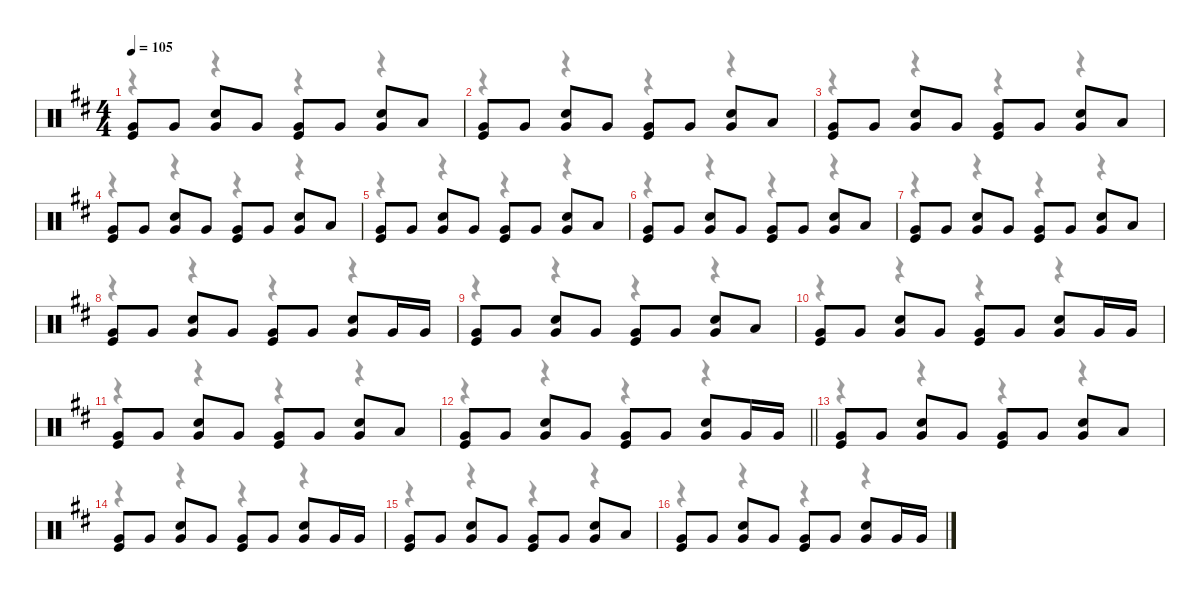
\defaultSystemsLayout 4
\hideDynamics
\bracketExtendMode nobrackets
\singleTrackTrackNamePolicy hidden
\multiTrackTrackNamePolicy hidden
\firstSystemTrackNameMode fullname
\firstSystemTrackNameOrientation horizontal
\otherSystemsTrackNameOrientation horizontal
\track ("Drums" "drm.") {instrument percussion}
\staff {score}
\articulation defaults
\voice
\ts (4 4)
\beaming (8 2 2 2 2)
\tempo 105
\clef neutral
\ks bminor
("Very Low Tom (hit)"{acc forcenatural} "Kick (hit)"{acc forcenatural}).8{dy mp beam Up} "Very Low Tom (hit)"{acc forcenatural}.8{beam Up} ("Very Low Tom (hit)"{acc forcenatural} "Snare (hit) 2"{acc forcenatural}).8{beam Up} "Very Low Tom (hit)"{acc forcenatural}.8{beam Up} ("Very Low Tom (hit)"{acc forcenatural} "Kick (hit)"{acc forcenatural}).8{beam Up} "Very Low Tom (hit)"{acc forcenatural}.8{beam Up} ("Very Low Tom (hit)"{acc forcenatural} "Snare (hit) 2"{acc forcenatural}).8{beam Up} "Low Tom (hit)"{acc forcenatural}.8{beam Up} |
("Very Low Tom (hit)"{acc forcenatural} "Kick (hit)"{acc forcenatural}).8{beam Up} "Very Low Tom (hit)"{acc forcenatural}.8{beam Up} ("Very Low Tom (hit)"{acc forcenatural} "Snare (hit) 2"{acc forcenatural}).8{beam Up} "Very Low Tom (hit)"{acc forcenatural}.8{beam Up} ("Very Low Tom (hit)"{acc forcenatural} "Kick (hit)"{acc forcenatural}).8{beam Up} "Very Low Tom (hit)"{acc forcenatural}.8{beam Up} ("Very Low Tom (hit)"{acc forcenatural} "Snare (hit) 2"{acc forcenatural}).8{beam Up} "Low Tom (hit)"{acc forcenatural}.8{beam Up} |
("Very Low Tom (hit)"{acc forcenatural} "Kick (hit)"{acc forcenatural}).8{beam Up} "Very Low Tom (hit)"{acc forcenatural}.8{beam Up} ("Very Low Tom (hit)"{acc forcenatural} "Snare (hit) 2"{acc forcenatural}).8{beam Up} "Very Low Tom (hit)"{acc forcenatural}.8{beam Up} ("Very Low Tom (hit)"{acc forcenatural} "Kick (hit)"{acc forcenatural}).8{beam Up} "Very Low Tom (hit)"{acc forcenatural}.8{beam Up} ("Very Low Tom (hit)"{acc forcenatural} "Snare (hit) 2"{acc forcenatural}).8{beam Up} "Low Tom (hit)"{acc forcenatural}.8{beam Up} |
("Very Low Tom (hit)"{acc forcenatural} "Kick (hit)"{acc forcenatural}).8{beam Up} "Very Low Tom (hit)"{acc forcenatural}.8{beam Up} ("Very Low Tom (hit)"{acc forcenatural} "Snare (hit) 2"{acc forcenatural}).8{beam Up} "Very Low Tom (hit)"{acc forcenatural}.8{beam Up} ("Very Low Tom (hit)"{acc forcenatural} "Kick (hit)"{acc forcenatural}).8{beam Up} "Very Low Tom (hit)"{acc forcenatural}.8{beam Up} ("Very Low Tom (hit)"{acc forcenatural} "Snare (hit) 2"{acc forcenatural}).8{beam Up} "Low Tom (hit)"{acc forcenatural}.8{beam Up} |
("Very Low Tom (hit)"{acc forcenatural} "Kick (hit)"{acc forcenatural}).8{beam Up} "Very Low Tom (hit)"{acc forcenatural}.8{beam Up} ("Very Low Tom (hit)"{acc forcenatural} "Snare (hit) 2"{acc forcenatural}).8{beam Up} "Very Low Tom (hit)"{acc forcenatural}.8{beam Up} ("Very Low Tom (hit)"{acc forcenatural} "Kick (hit)"{acc forcenatural}).8{beam Up} "Very Low Tom (hit)"{acc forcenatural}.8{beam Up} ("Very Low Tom (hit)"{acc forcenatural} "Snare (hit) 2"{acc forcenatural}).8{beam Up} "Low Tom (hit)"{acc forcenatural}.8{beam Up} |
("Very Low Tom (hit)"{acc forcenatural} "Kick (hit)"{acc forcenatural}).8{beam Up} "Very Low Tom (hit)"{acc forcenatural}.8{beam Up} ("Very Low Tom (hit)"{acc forcenatural} "Snare (hit) 2"{acc forcenatural}).8{beam Up} "Very Low Tom (hit)"{acc forcenatural}.8{beam Up} ("Very Low Tom (hit)"{acc forcenatural} "Kick (hit)"{acc forcenatural}).8{beam Up} "Very Low Tom (hit)"{acc forcenatural}.8{beam Up} ("Very Low Tom (hit)"{acc forcenatural} "Snare (hit) 2"{acc forcenatural}).8{beam Up} "Low Tom (hit)"{acc forcenatural}.8{beam Up} |
("Very Low Tom (hit)"{acc forcenatural} "Kick (hit)"{acc forcenatural}).8{beam Up} "Very Low Tom (hit)"{acc forcenatural}.8{beam Up} ("Very Low Tom (hit)"{acc forcenatural} "Snare (hit) 2"{acc forcenatural}).8{beam Up} "Very Low Tom (hit)"{acc forcenatural}.8{beam Up} ("Very Low Tom (hit)"{acc forcenatural} "Kick (hit)"{acc forcenatural}).8{beam Up} "Very Low Tom (hit)"{acc forcenatural}.8{beam Up} ("Very Low Tom (hit)"{acc forcenatural} "Snare (hit) 2"{acc forcenatural}).8{beam Up} "Low Tom (hit)"{acc forcenatural}.8{beam Up} |
("Very Low Tom (hit)"{acc forcenatural} "Kick (hit)"{acc forcenatural}).8{beam Up} "Very Low Tom (hit)"{acc forcenatural}.8{beam Up} ("Very Low Tom (hit)"{acc forcenatural} "Snare (hit) 2"{acc forcenatural}).8{beam Up} "Very Low Tom (hit)"{acc forcenatural}.8{beam Up} ("Very Low Tom (hit)"{acc forcenatural} "Kick (hit)"{acc forcenatural}).8{beam Up} "Very Low Tom (hit)"{acc forcenatural}.8{beam Up} ("Very Low Tom (hit)"{acc forcenatural} "Snare (hit) 2"{acc forcenatural}).8{beam Up} "Very Low Tom (hit)"{acc forcenatural}.16{beam Up} "Very Low Tom (hit)"{acc forcenatural}.16{beam Up} |
("Very Low Tom (hit)"{acc forcenatural} "Kick (hit)"{acc forcenatural}).8{beam Up} "Very Low Tom (hit)"{acc forcenatural}.8{beam Up} ("Very Low Tom (hit)"{acc forcenatural} "Snare (hit) 2"{acc forcenatural}).8{beam Up} "Very Low Tom (hit)"{acc forcenatural}.8{beam Up} ("Very Low Tom (hit)"{acc forcenatural} "Kick (hit)"{acc forcenatural}).8{beam Up} "Very Low Tom (hit)"{acc forcenatural}.8{beam Up} ("Very Low Tom (hit)"{acc forcenatural} "Snare (hit) 2"{acc forcenatural}).8{beam Up} "Low Tom (hit)"{acc forcenatural}.8{beam Up} |
("Very Low Tom (hit)"{acc forcenatural} "Kick (hit)"{acc forcenatural}).8{beam Up} "Very Low Tom (hit)"{acc forcenatural}.8{beam Up} ("Very Low Tom (hit)"{acc forcenatural} "Snare (hit) 2"{acc forcenatural}).8{beam Up} "Very Low Tom (hit)"{acc forcenatural}.8{beam Up} ("Very Low Tom (hit)"{acc forcenatural} "Kick (hit)"{acc forcenatural}).8{beam Up} "Very Low Tom (hit)"{acc forcenatural}.8{beam Up} ("Very Low Tom (hit)"{acc forcenatural} "Snare (hit) 2"{acc forcenatural}).8{beam Up} "Very Low Tom (hit)"{acc forcenatural}.16{beam Up} "Very Low Tom (hit)"{acc forcenatural}.16{beam Up} |
("Very Low Tom (hit)"{acc forcenatural} "Kick (hit)"{acc forcenatural}).8{beam Up} "Very Low Tom (hit)"{acc forcenatural}.8{beam Up} ("Very Low Tom (hit)"{acc forcenatural} "Snare (hit) 2"{acc forcenatural}).8{beam Up} "Very Low Tom (hit)"{acc forcenatural}.8{beam Up} ("Very Low Tom (hit)"{acc forcenatural} "Kick (hit)"{acc forcenatural}).8{beam Up} "Very Low Tom (hit)"{acc forcenatural}.8{beam Up} ("Very Low Tom (hit)"{acc forcenatural} "Snare (hit) 2"{acc forcenatural}).8{beam Up} "Low Tom (hit)"{acc forcenatural}.8{beam Up} |
\barLineRight lightlight
("Very Low Tom (hit)"{acc forcenatural} "Kick (hit)"{acc forcenatural}).8{beam Up} "Very Low Tom (hit)"{acc forcenatural}.8{beam Up} ("Very Low Tom (hit)"{acc forcenatural} "Snare (hit) 2"{acc forcenatural}).8{beam Up} "Very Low Tom (hit)"{acc forcenatural}.8{beam Up} ("Very Low Tom (hit)"{acc forcenatural} "Kick (hit)"{acc forcenatural}).8{beam Up} "Very Low Tom (hit)"{acc forcenatural}.8{beam Up} ("Very Low Tom (hit)"{acc forcenatural} "Snare (hit) 2"{acc forcenatural}).8{beam Up} "Very Low Tom (hit)"{acc forcenatural}.16{beam Up} "Very Low Tom (hit)"{acc forcenatural}.16{beam Up} |
("Very Low Tom (hit)"{acc forcenatural} "Kick (hit)"{acc forcenatural}).8{beam Up} "Very Low Tom (hit)"{acc forcenatural}.8{beam Up} ("Very Low Tom (hit)"{acc forcenatural} "Snare (hit) 2"{acc forcenatural}).8{beam Up} "Very Low Tom (hit)"{acc forcenatural}.8{beam Up} ("Very Low Tom (hit)"{acc forcenatural} "Kick (hit)"{acc forcenatural}).8{beam Up} "Very Low Tom (hit)"{acc forcenatural}.8{beam Up} ("Very Low Tom (hit)"{acc forcenatural} "Snare (hit) 2"{acc forcenatural}).8{beam Up} "Low Tom (hit)"{acc forcenatural}.8{beam Up} |
("Very Low Tom (hit)"{acc forcenatural} "Kick (hit)"{acc forcenatural}).8{beam Up} "Very Low Tom (hit)"{acc forcenatural}.8{beam Up} ("Very Low Tom (hit)"{acc forcenatural} "Snare (hit) 2"{acc forcenatural}).8{beam Up} "Very Low Tom (hit)"{acc forcenatural}.8{beam Up} ("Very Low Tom (hit)"{acc forcenatural} "Kick (hit)"{acc forcenatural}).8{beam Up} "Very Low Tom (hit)"{acc forcenatural}.8{beam Up} ("Very Low Tom (hit)"{acc forcenatural} "Snare (hit) 2"{acc forcenatural}).8{beam Up} "Very Low Tom (hit)"{acc forcenatural}.16{beam Up} "Very Low Tom (hit)"{acc forcenatural}.16{beam Up} |
("Very Low Tom (hit)"{acc forcenatural} "Kick (hit)"{acc forcenatural}).8{beam Up} "Very Low Tom (hit)"{acc forcenatural}.8{beam Up} ("Very Low Tom (hit)"{acc forcenatural} "Snare (hit) 2"{acc forcenatural}).8{beam Up} "Very Low Tom (hit)"{acc forcenatural}.8{beam Up} ("Very Low Tom (hit)"{acc forcenatural} "Kick (hit)"{acc forcenatural}).8{beam Up} "Very Low Tom (hit)"{acc forcenatural}.8{beam Up} ("Very Low Tom (hit)"{acc forcenatural} "Snare (hit) 2"{acc forcenatural}).8{beam Up} "Low Tom (hit)"{acc forcenatural}.8{beam Up} |
("Very Low Tom (hit)"{acc forcenatural} "Kick (hit)"{acc forcenatural}).8{beam Up} "Very Low Tom (hit)"{acc forcenatural}.8{beam Up} ("Very Low Tom (hit)"{acc forcenatural} "Snare (hit) 2"{acc forcenatural}).8{beam Up} "Very Low Tom (hit)"{acc forcenatural}.8{beam Up} ("Very Low Tom (hit)"{acc forcenatural} "Kick (hit)"{acc forcenatural}).8{beam Up} "Very Low Tom (hit)"{acc forcenatural}.8{beam Up} ("Very Low Tom (hit)"{acc forcenatural} "Snare (hit) 2"{acc forcenatural}).8{beam Up} "Very Low Tom (hit)"{acc forcenatural}.16{beam Up} "Very Low Tom (hit)"{acc forcenatural}.16{beam Up}
\voice
\clef neutral
\ottava regular
\simile none
\ks bminor
r.4{dy mf beam Down} r.4{beam Down} r.4{beam Down} r.4{beam Down} |
r.4{beam Down} r.4{beam Down} r.4{beam Down} r.4{beam Down} |
r.4{beam Down} r.4{beam Down} r.4{beam Down} r.4{beam Down} |
r.4{beam Down} r.4{beam Down} r.4{beam Down} r.4{beam Down} |
r.4{beam Down} r.4{beam Down} r.4{beam Down} r.4{beam Down} |
r.4{beam Down} r.4{beam Down} r.4{beam Down} r.4{beam Down} |
r.4{beam Down} r.4{beam Down} r.4{beam Down} r.4{beam Down} |
r.4{beam Down} r.4{beam Down} r.4{beam Down} r.4{beam Down} |
r.4{beam Down} r.4{beam Down} r.4{beam Down} r.4{beam Down} |
r.4{beam Down} r.4{beam Down} r.4{beam Down} r.4{beam Down} |
r.4{beam Down} r.4{beam Down} r.4{beam Down} r.4{beam Down} |
\barLineRight lightlight
r.4{beam Down} r.4{beam Down} r.4{beam Down} r.4{beam Down} |
r.4{beam Down} r.4{beam Down} r.4{beam Down} r.4{beam Down} |
r.4{beam Down} r.4{beam Down} r.4{beam Down} r.4{beam Down} |
r.4{beam Down} r.4{beam Down} r.4{beam Down} r.4{beam Down} |
r.4{beam Down} r.4{beam Down} r.4{beam Down} r.4{beam Down}
